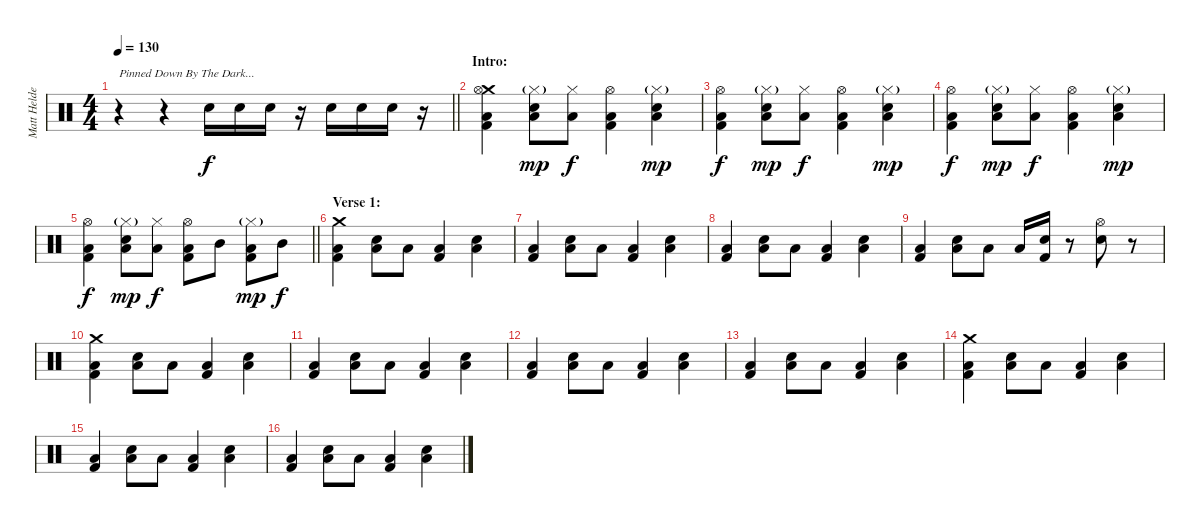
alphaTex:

\track ("Matt Helders (Percussion)" "Matt Helde") {instrument percussion}
\staff {score}
\articulation defaults
\ts (4 4)
\tempo 130
\clef neutral
\barLineRight lightlight
\ks c
r.4{txt "Pinned Down By The Dark..." dy f} r.4 "Snare (hit) 2".16 "Snare (hit) 2".16 "Snare (hit) 2".16 r.16 "Snare (hit) 2".16 "Snare (hit) 2".16 "Snare (hit) 2".16 r.16 |
\section ("" "Intro:")
("Crash medium (hit)" "Hi-Hat (open)" "Low Tom (hit)" "Kick (hit) 2").4 ("Hi-Hat (closed)"{g} "Snare (hit) 2" "Low Tom (hit)").8{dy mp} ("Hi-Hat (closed)" "Low Tom (hit)").8{dy f} ("Hi-Hat (open)" "Low Tom (hit)" "Kick (hit) 2").4 ("Hi-Hat (closed)"{g} "Snare (hit) 2" "Low Tom (hit)").4{dy mp} |
("Hi-Hat (open)" "Low Tom (hit)" "Kick (hit) 2").4{dy f} ("Hi-Hat (closed)"{g} "Snare (hit) 2" "Low Tom (hit)").8{dy mp} ("Hi-Hat (closed)" "Low Tom (hit)").8{dy f} ("Hi-Hat (open)" "Low Tom (hit)" "Kick (hit) 2").4 ("Hi-Hat (closed)"{g} "Snare (hit) 2" "Low Tom (hit)").4{dy mp} |
("Hi-Hat (open)" "Low Tom (hit)" "Kick (hit) 2").4{dy f} ("Hi-Hat (closed)"{g} "Snare (hit) 2" "Low Tom (hit)").8{dy mp} ("Hi-Hat (closed)" "Low Tom (hit)").8{dy f} ("Hi-Hat (open)" "Low Tom (hit)" "Kick (hit) 2").4 ("Hi-Hat (closed)"{g} "Snare (hit) 2" "Low Tom (hit)").4{dy mp} |
\barLineRight lightlight
("Hi-Hat (open)" "Low Tom (hit)" "Kick (hit) 2").4{dy f} ("Hi-Hat (closed)"{g} "Snare (hit) 2" "Low Tom (hit)").8{dy mp} ("Hi-Hat (closed)" "Low Tom (hit)").8{dy f} ("Hi-Hat (open)" "Low Tom (hit)" "Kick (hit) 2").8 "Mid Tom (hit)".8 ("Hi-Hat (closed)"{g} "Low Tom (hit)" "Kick (hit) 2").8{dy mp} "Mid Tom (hit)".8{dy f} |
\section ("" "Verse 1:")
("Crash medium (hit)" "Low Tom (hit)" "Kick (hit) 2").4 ("Snare (hit) 2" "Low Tom (hit)").8 "Low Tom (hit)".8 ("Low Tom (hit)" "Kick (hit) 2").4 ("Snare (hit) 2" "Low Tom (hit)").4 |
("Low Tom (hit)" "Kick (hit) 2").4 ("Snare (hit) 2" "Low Tom (hit)").8 "Low Tom (hit)".8 ("Low Tom (hit)" "Kick (hit) 2").4 ("Snare (hit) 2" "Low Tom (hit)").4 |
("Low Tom (hit)" "Kick (hit) 2").4 ("Snare (hit) 2" "Low Tom (hit)").8 "Low Tom (hit)".8 ("Low Tom (hit)" "Kick (hit) 2").4 ("Snare (hit) 2" "Low Tom (hit)").4 |
("Low Tom (hit)" "Kick (hit) 2").4 ("Snare (hit) 2" "Low Tom (hit)").8 "Low Tom (hit)".8 "Low Tom (hit)".16 ("Snare (hit) 2" "Kick (hit) 2").16 r.8 ("Hi-Hat (open)" "Hand Clap (hit)").8 r.8 |
("Crash medium (hit)" "Low Tom (hit)" "Kick (hit) 2").4 ("Snare (hit) 2" "Low Tom (hit)").8 "Low Tom (hit)".8 ("Low Tom (hit)" "Kick (hit) 2").4 ("Snare (hit) 2" "Low Tom (hit)").4 |
("Low Tom (hit)" "Kick (hit) 2").4 ("Snare (hit) 2" "Low Tom (hit)").8 "Low Tom (hit)".8 ("Low Tom (hit)" "Kick (hit) 2").4 ("Snare (hit) 2" "Low Tom (hit)").4 |
("Low Tom (hit)" "Kick (hit) 2").4 ("Snare (hit) 2" "Low Tom (hit)").8 "Low Tom (hit)".8 ("Low Tom (hit)" "Kick (hit) 2").4 ("Snare (hit) 2" "Low Tom (hit)").4 |
("Low Tom (hit)" "Kick (hit) 2").4 ("Snare (hit) 2" "Low Tom (hit)").8 "Low Tom (hit)".8 ("Low Tom (hit)" "Kick (hit) 2").4 ("Snare (hit) 2" "Low Tom (hit)").4 |
("Crash medium (hit)" "Low Tom (hit)" "Kick (hit) 2").4 ("Snare (hit) 2" "Low Tom (hit)").8 "Low Tom (hit)".8 ("Low Tom (hit)" "Kick (hit) 2").4 ("Snare (hit) 2" "Low Tom (hit)").4 |
("Low Tom (hit)" "Kick (hit) 2").4 ("Snare (hit) 2" "Low Tom (hit)").8 "Low Tom (hit)".8 ("Low Tom (hit)" "Kick (hit) 2").4 ("Snare (hit) 2" "Low Tom (hit)").4 |
("Low Tom (hit)" "Kick (hit) 2").4 ("Snare (hit) 2" "Low Tom (hit)").8 "Low Tom (hit)".8 ("Low Tom (hit)" "Kick (hit) 2").4 ("Snare (hit) 2" "Low Tom (hit)").4
